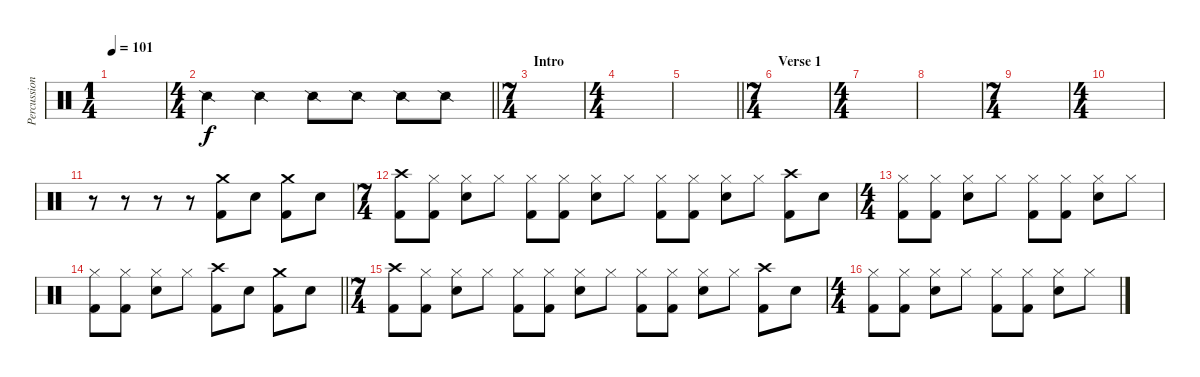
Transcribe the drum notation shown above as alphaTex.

\track ("Percussion" "Percussion") {instrument percussion}
\staff {score}
\articulation defaults
\ts (1 4)
\tempo 101
\clef neutral
\ks c
|
\ts (4 4)
\barLineRight lightlight "Snare (side stick) 2".4 "Snare (side stick) 2".4 "Snare (side stick) 2".8 "Snare (side stick) 2".8 "Snare (side stick) 2".8 "Snare (side stick) 2".8
|
\ts (7 4)
\section ("" "Intro")
|
\ts (4 4)
|
\barLineRight lightlight
|
\ts (7 4)
\section ("" "Verse 1")
|
\ts (4 4)
|
|
\ts (7 4)
|
\ts (4 4)
|
r.8 r.8 r.8 r.8 ("Crash medium (hit)" "Kick (hit) 2").8 "Electric Snare (hit)".8 ("Crash medium (hit)" "Kick (hit) 2").8 "Electric Snare (hit)".8 |
\ts (7 4)
("Crash high (hit)" "Kick (hit) 2").8 ("Hi-Hat (closed)" "Kick (hit) 2").8 ("Hi-Hat (closed)" "Electric Snare (hit)").8 "Hi-Hat (closed)".8 ("Hi-Hat (closed)" "Kick (hit) 2").8 ("Hi-Hat (closed)" "Kick (hit) 2").8 ("Hi-Hat (closed)" "Electric Snare (hit)").8 "Hi-Hat (closed)".8 ("Hi-Hat (closed)" "Kick (hit) 2").8 ("Hi-Hat (closed)" "Kick (hit) 2").8 ("Hi-Hat (closed)" "Electric Snare (hit)").8 "Hi-Hat (closed)".8 ("Crash high (hit)" "Kick (hit) 2").8 "Electric Snare (hit)".8 |
\ts (4 4)
("Hi-Hat (closed)" "Kick (hit) 2").8 ("Hi-Hat (closed)" "Kick (hit) 2").8 ("Hi-Hat (closed)" "Electric Snare (hit)").8 "Hi-Hat (closed)".8 ("Hi-Hat (closed)" "Kick (hit) 2").8 ("Hi-Hat (closed)" "Kick (hit) 2").8 ("Hi-Hat (closed)" "Electric Snare (hit)").8 "Hi-Hat (closed)".8 |
\barLineRight lightlight
("Hi-Hat (closed)" "Kick (hit) 2").8 ("Hi-Hat (closed)" "Kick (hit) 2").8 ("Hi-Hat (closed)" "Electric Snare (hit)").8 "Hi-Hat (closed)".8 ("Crash high (hit)" "Kick (hit) 2").8 "Electric Snare (hit)".8 ("Crash medium (hit)" "Kick (hit) 2").8 "Electric Snare (hit)".8 |
\ts (7 4)
("Crash high (hit)" "Kick (hit) 2").8 ("Hi-Hat (closed)" "Kick (hit) 2").8 ("Hi-Hat (closed)" "Electric Snare (hit)").8 "Hi-Hat (closed)".8 ("Hi-Hat (closed)" "Kick (hit) 2").8 ("Hi-Hat (closed)" "Kick (hit) 2").8 ("Hi-Hat (closed)" "Electric Snare (hit)").8 "Hi-Hat (closed)".8 ("Hi-Hat (closed)" "Kick (hit) 2").8 ("Hi-Hat (closed)" "Kick (hit) 2").8 ("Hi-Hat (closed)" "Electric Snare (hit)").8 "Hi-Hat (closed)".8 ("Crash high (hit)" "Kick (hit) 2").8 "Electric Snare (hit)".8 |
\ts (4 4)
("Hi-Hat (closed)" "Kick (hit) 2").8 ("Hi-Hat (closed)" "Kick (hit) 2").8 ("Hi-Hat (closed)" "Electric Snare (hit)").8 "Hi-Hat (closed)".8 ("Hi-Hat (closed)" "Kick (hit) 2").8 ("Hi-Hat (closed)" "Kick (hit) 2").8 ("Hi-Hat (closed)" "Electric Snare (hit)").8 "Hi-Hat (closed)".8
